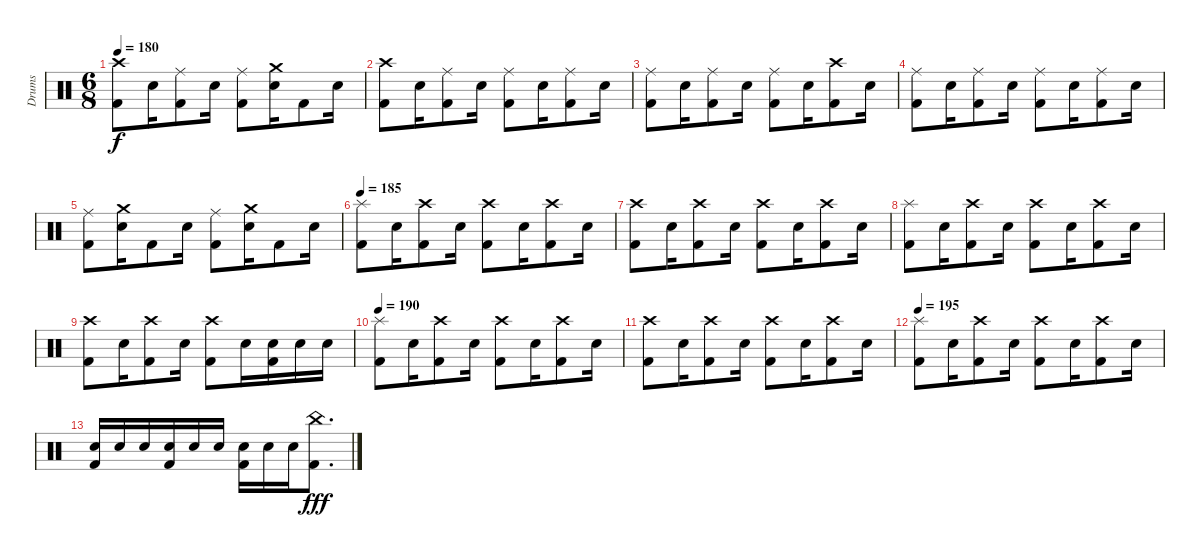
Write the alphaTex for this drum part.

\track ("Drums" "Drums") {instrument percussion}
\staff {score}
\articulation defaults
\ts (6 8)
\tempo 180
\clef neutral
\ks c
("Crash high (hit)" "Kick (hit) 2").8{dy f} "Snare (hit) 2".16 ("Ride (middle)" "Kick (hit) 2").8 "Snare (hit) 2".16 ("Ride (middle)" "Kick (hit) 2").8 ("Crash medium (hit)" "Snare (hit) 2").16 "Kick (hit) 2".8 "Snare (hit) 2".16 |
("Crash high (hit)" "Kick (hit) 2").8 "Snare (hit) 2".16 ("Ride (middle)" "Kick (hit) 2").8 "Snare (hit) 2".16 ("Ride (middle)" "Kick (hit) 2").8 "Snare (hit) 2".16 ("Ride (middle)" "Kick (hit) 2").8 "Snare (hit) 2".16 |
("Ride (middle)" "Kick (hit) 2").8 "Snare (hit) 2".16 ("Ride (middle)" "Kick (hit) 2").8 "Snare (hit) 2".16 ("Ride (middle)" "Kick (hit) 2").8 "Snare (hit) 2".16 ("Crash high (hit)" "Kick (hit) 2").8 "Snare (hit) 2".16 |
("Ride (middle)" "Kick (hit) 2").8 "Snare (hit) 2".16 ("Ride (middle)" "Kick (hit) 2").8 "Snare (hit) 2".16 ("Ride (middle)" "Kick (hit) 2").8 "Snare (hit) 2".16 ("Ride (middle)" "Kick (hit) 2").8 "Snare (hit) 2".16 |
("Ride (middle)" "Kick (hit) 2").8 ("Crash medium (hit)" "Snare (hit) 2").16 "Kick (hit) 2".8 "Snare (hit) 2".16 ("Ride (middle)" "Kick (hit) 2").8 ("Crash medium (hit)" "Snare (hit) 2").16 "Kick (hit) 2".8 "Snare (hit) 2".16 |
\tempo 185
("Splash (hit)" "Kick (hit) 2").8 "Snare (hit) 2".16 ("Crash high (hit)" "Kick (hit) 2").8 "Snare (hit) 2".16 ("Crash high (hit)" "Kick (hit) 2").8 "Snare (hit) 2".16 ("Crash high (hit)" "Kick (hit) 2").8 "Snare (hit) 2".16 |
("Crash high (hit)" "Kick (hit) 2").8 "Snare (hit) 2".16 ("Crash high (hit)" "Kick (hit) 2").8 "Snare (hit) 2".16 ("Crash high (hit)" "Kick (hit) 2").8 "Snare (hit) 2".16 ("Crash high (hit)" "Kick (hit) 2").8 "Snare (hit) 2".16 |
("Splash (hit)" "Kick (hit) 2").8 "Snare (hit) 2".16 ("Crash high (hit)" "Kick (hit) 2").8 "Snare (hit) 2".16 ("Crash high (hit)" "Kick (hit) 2").8 "Snare (hit) 2".16 ("Crash high (hit)" "Kick (hit) 2").8 "Snare (hit) 2".16 |
("Crash high (hit)" "Kick (hit) 2").8 "Snare (hit) 2".16 ("Crash high (hit)" "Kick (hit) 2").8 "Snare (hit) 2".16 ("Crash high (hit)" "Kick (hit) 2").8 "Snare (hit) 2".16 ("Snare (hit) 2" "Kick (hit) 2").16 "Snare (hit) 2".16 "Snare (hit) 2".16 |
\tempo 190
("Splash (hit)" "Kick (hit) 2").8 "Snare (hit) 2".16 ("Crash high (hit)" "Kick (hit) 2").8 "Snare (hit) 2".16 ("Crash high (hit)" "Kick (hit) 2").8 "Snare (hit) 2".16 ("Crash high (hit)" "Kick (hit) 2").8 "Snare (hit) 2".16 |
("Crash high (hit)" "Kick (hit) 2").8 "Snare (hit) 2".16 ("Crash high (hit)" "Kick (hit) 2").8 "Snare (hit) 2".16 ("Crash high (hit)" "Kick (hit) 2").8 "Snare (hit) 2".16 ("Crash high (hit)" "Kick (hit) 2").8 "Snare (hit) 2".16 |
\tempo 195
("Splash (hit)" "Kick (hit) 2").8 "Snare (hit) 2".16 ("Crash high (hit)" "Kick (hit) 2").8 "Snare (hit) 2".16 ("Crash high (hit)" "Kick (hit) 2").8 "Snare (hit) 2".16 ("Crash high (hit)" "Kick (hit) 2").8 "Snare (hit) 2".16 |
("Snare (hit) 2" "Kick (hit) 2").16 "Snare (hit) 2".16 "Snare (hit) 2".16 ("Snare (hit) 2" "Kick (hit) 2").16 "Snare (hit) 2".16 "Snare (hit) 2".16 ("Snare (hit) 2" "Kick (hit) 2").16 "Snare (hit) 2".16 "Snare (hit) 2".16 ("China (hit)" "Kick (hit) 2").8{d dy fff}
